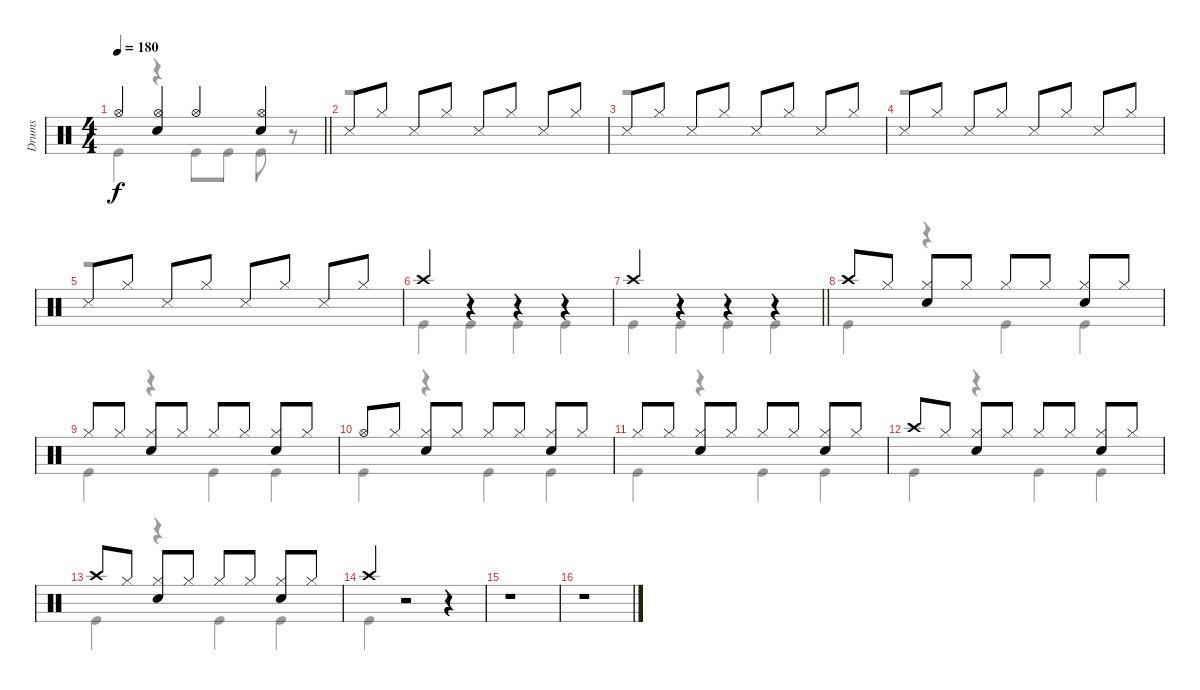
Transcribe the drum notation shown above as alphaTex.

\track ("Drums" "Drums") {instrument percussion}
\staff {score}
\articulation defaults
\voice
\ts (4 4)
\tempo 180
\clef neutral
\barLineRight lightlight
\ks c "Hi-Hat (open)".4{dy f}
("Hi-Hat (open)" "Snare (hit) 2").4 "Hi-Hat (open)".4 ("Hi-Hat (open)" "Snare (hit) 2").4 |
"Snare (side stick) 3".8 "Hi-Hat (closed)".8 "Snare (side stick) 3".8 "Hi-Hat (closed)".8 "Snare (side stick) 3".8 "Hi-Hat (closed)".8 "Snare (side stick) 3".8 "Hi-Hat (closed)".8 |
"Snare (side stick) 3".8 "Hi-Hat (closed)".8 "Snare (side stick) 3".8 "Hi-Hat (closed)".8 "Snare (side stick) 3".8 "Hi-Hat (closed)".8 "Snare (side stick) 3".8 "Hi-Hat (closed)".8 |
"Snare (side stick) 3".8 "Hi-Hat (closed)".8 "Snare (side stick) 3".8 "Hi-Hat (closed)".8 "Snare (side stick) 3".8 "Hi-Hat (closed)".8 "Snare (side stick) 3".8 "Hi-Hat (closed)".8 |
"Snare (side stick) 3".8 "Hi-Hat (closed)".8 "Snare (side stick) 3".8 "Hi-Hat (closed)".8 "Snare (side stick) 3".8 "Hi-Hat (closed)".8 "Snare (side stick) 3".8 "Hi-Hat (closed)".8 |
"Crash high (hit)".4 r.4 r.4 r.4 |
\barLineRight lightlight "Crash high (hit)".4
r.4 r.4 r.4 |
"Crash high (hit)".8 "Hi-Hat (closed)".8 ("Hi-Hat (closed)" "Snare (hit) 2").8 "Hi-Hat (closed)".8 "Hi-Hat (closed)".8 "Hi-Hat (closed)".8 ("Hi-Hat (closed)" "Snare (hit) 2").8 "Hi-Hat (closed)".8 |
"Hi-Hat (closed)".8 "Hi-Hat (closed)".8 ("Hi-Hat (closed)" "Snare (hit) 2").8 "Hi-Hat (closed)".8 "Hi-Hat (closed)".8 "Hi-Hat (closed)".8 ("Hi-Hat (closed)" "Snare (hit) 2").8 "Hi-Hat (closed)".8 |
"Hi-Hat (open)".8 "Hi-Hat (closed)".8 ("Hi-Hat (closed)" "Snare (hit) 2").8 "Hi-Hat (closed)".8 "Hi-Hat (closed)".8 "Hi-Hat (closed)".8 ("Hi-Hat (closed)" "Snare (hit) 2").8 "Hi-Hat (closed)".8 |
"Hi-Hat (closed)".8 "Hi-Hat (closed)".8 ("Hi-Hat (closed)" "Snare (hit) 2").8 "Hi-Hat (closed)".8 "Hi-Hat (closed)".8 "Hi-Hat (closed)".8 ("Hi-Hat (closed)" "Snare (hit) 2").8 "Hi-Hat (closed)".8 |
"Crash high (hit)".8 "Hi-Hat (closed)".8 ("Hi-Hat (closed)" "Snare (hit) 2").8 "Hi-Hat (closed)".8 "Hi-Hat (closed)".8 "Hi-Hat (closed)".8 ("Hi-Hat (closed)" "Snare (hit) 2").8 "Hi-Hat (closed)".8 |
"Crash high (hit)".8 "Hi-Hat (closed)".8 ("Hi-Hat (closed)" "Snare (hit) 2").8 "Hi-Hat (closed)".8 "Hi-Hat (closed)".8 "Hi-Hat (closed)".8 ("Hi-Hat (closed)" "Snare (hit) 2").8 "Hi-Hat (closed)".8 |
"Crash high (hit)".4 r.2 r.4 |
r.1 |
r.1
\voice
\clef neutral
\ottava regular
\simile none
\barLineRight lightlight
\ks c "Kick (hit)".4{dy f}
r.4 "Kick (hit)".8 "Kick (hit)".8 "Kick (hit)".8 r.8 |
r.1 |
r.1 |
r.1 |
r.1 |
"Kick (hit)".4 "Kick (hit)".4 "Kick (hit)".4 "Kick (hit)".4 |
\barLineRight lightlight "Kick (hit)".4 "Kick (hit)".4 "Kick (hit)".4 "Kick (hit)".4
|
"Kick (hit)".4 r.4 "Kick (hit)".4 "Kick (hit)".4 |
"Kick (hit)".4 r.4 "Kick (hit)".4 "Kick (hit)".4 |
"Kick (hit)".4 r.4 "Kick (hit)".4 "Kick (hit)".4 |
"Kick (hit)".4 r.4 "Kick (hit)".4 "Kick (hit)".4 |
"Kick (hit)".4 r.4 "Kick (hit)".4 "Kick (hit)".4 |
"Kick (hit)".4 r.4 "Kick (hit)".4 "Kick (hit)".4 |
"Kick (hit)".4 r.2 r.4 |
r.1 |
r.1
